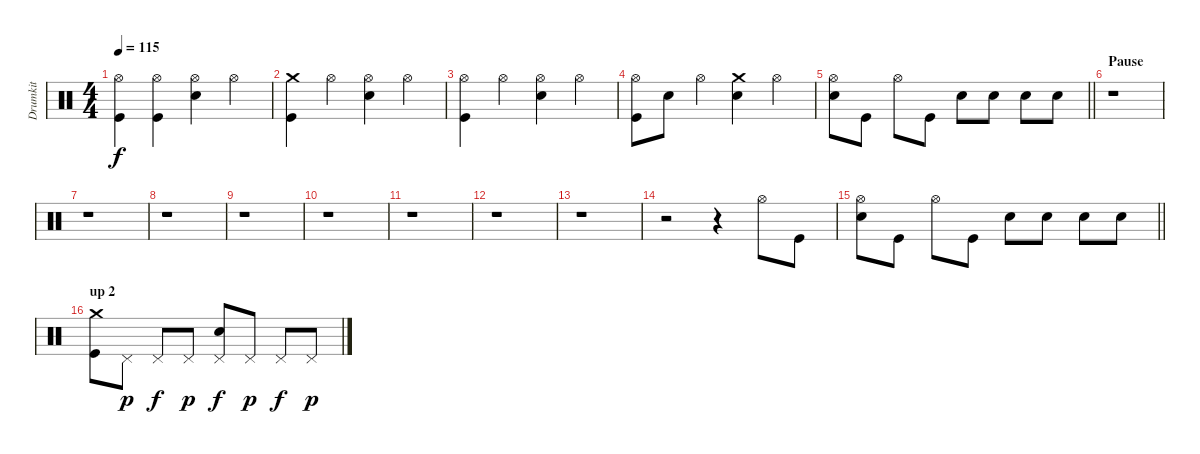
\track ("Drumkit" "Drumkit") {instrument percussion}
\staff {score}
\articulation defaults
\ts (4 4)
\tempo 115
\clef neutral
\ks c
("Kick (hit)" "Hi-Hat (open)").4{dy f} ("Kick (hit)" "Hi-Hat (open)").4 ("Hi-Hat (open)" "Snare (hit) 2").4 "Hi-Hat (open)".4 |
("Kick (hit)" "Crash medium (hit)").4 "Hi-Hat (open)".4 ("Hi-Hat (open)" "Snare (hit) 2").4 "Hi-Hat (open)".4 |
("Kick (hit)" "Hi-Hat (open)").4 "Hi-Hat (open)".4 ("Hi-Hat (open)" "Snare (hit) 2").4 "Hi-Hat (open)".4 |
("Kick (hit)" "Hi-Hat (open)").8 "Snare (hit) 2".8 "Hi-Hat (open)".4 ("Crash medium (hit)" "Snare (hit) 2").4 "Hi-Hat (open)".4 |
\barLineRight lightlight
("Hi-Hat (open)" "Snare (hit) 2").8 "Kick (hit)".8 "Hi-Hat (open)".8 "Kick (hit)".8 "Snare (hit) 2".8 "Snare (hit) 2".8 "Snare (hit) 2".8 "Snare (hit) 2".8 |
\section ("" "Pause")
r.1 |
r.1 |
r.1 |
r.1 |
r.1 |
r.1 |
r.1 |
r.1 |
r.2 r.4 "Hi-Hat (open)".8 "Kick (hit)".8 |
\barLineRight lightlight
("Hi-Hat (open)" "Snare (hit) 2").8 "Kick (hit)".8 "Hi-Hat (open)".8 "Kick (hit)".8 "Snare (hit) 2".8 "Snare (hit) 2".8 "Snare (hit) 2".8 "Snare (hit) 2".8 |
\section ("" "up 2")
("Kick (hit)" "Crash medium (hit)").8 "Pedal Hi-Hat (hit)".8{dy p} "Pedal Hi-Hat (hit)".8{dy f} "Pedal Hi-Hat (hit)".8{dy p} ("Pedal Hi-Hat (hit)" "Snare (hit) 2").8{dy f} "Pedal Hi-Hat (hit)".8{dy p} "Pedal Hi-Hat (hit)".8{dy f} "Pedal Hi-Hat (hit)".8{dy p}
